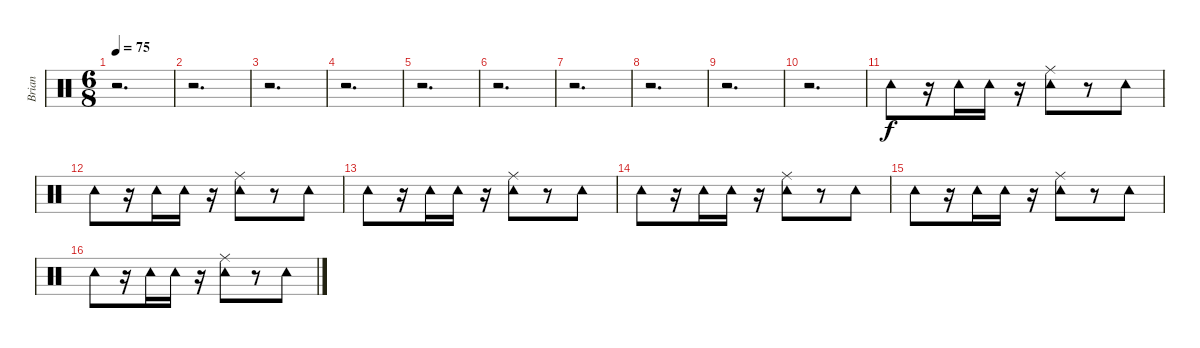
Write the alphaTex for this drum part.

\track ("Brian" "Brian") {instrument percussion}
\staff {score}
\articulation defaults
\ts (6 8)
\tempo 75
\clef neutral
\ks c
r.2{d dy f} |
r.2{d} |
r.2{d} |
r.2{d} |
r.2{d} |
r.2{d} |
r.2{d} |
r.2{d} |
r.2{d} |
r.2{d} |
"Tambourine (hit)".8 r.16 "Tambourine (hit)".16 "Tambourine (hit)".16 r.16 ("Tambourine (hit)" "Ride (middle)").8 r.8 "Tambourine (hit)".8 |
"Tambourine (hit)".8 r.16 "Tambourine (hit)".16 "Tambourine (hit)".16 r.16 ("Tambourine (hit)" "Ride (middle)").8 r.8 "Tambourine (hit)".8 |
"Tambourine (hit)".8 r.16 "Tambourine (hit)".16 "Tambourine (hit)".16 r.16 ("Tambourine (hit)" "Ride (middle)").8 r.8 "Tambourine (hit)".8 |
"Tambourine (hit)".8 r.16 "Tambourine (hit)".16 "Tambourine (hit)".16 r.16 ("Tambourine (hit)" "Ride (middle)").8 r.8 "Tambourine (hit)".8 |
"Tambourine (hit)".8 r.16 "Tambourine (hit)".16 "Tambourine (hit)".16 r.16 ("Tambourine (hit)" "Ride (middle)").8 r.8 "Tambourine (hit)".8 |
"Tambourine (hit)".8 r.16 "Tambourine (hit)".16 "Tambourine (hit)".16 r.16 ("Tambourine (hit)" "Ride (middle)").8 r.8 "Tambourine (hit)".8
